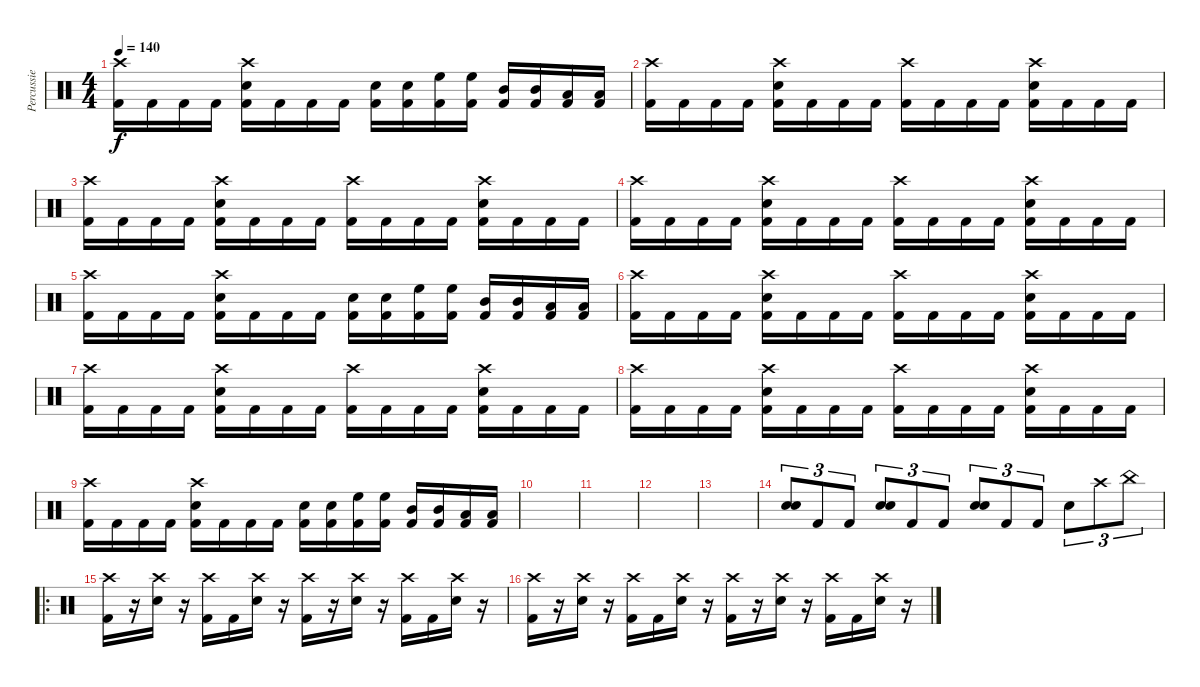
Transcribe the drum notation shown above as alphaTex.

\track ("Percussie" "Percussie") {instrument percussion}
\staff {score}
\articulation defaults
\ts (4 4)
\tempo 140
\clef neutral
\ks c
("Crash high (hit)" "Kick (hit) 2").16{dy f} "Kick (hit) 2".16 "Kick (hit) 2".16 "Kick (hit) 2".16 ("Crash high (hit)" "Snare (hit) 2" "Kick (hit) 2").16 "Kick (hit) 2".16 "Kick (hit) 2".16 "Kick (hit) 2".16 ("Snare (hit) 2" "Kick (hit) 2").16 ("Snare (hit) 2" "Kick (hit) 2").16 ("High Floor Tom (hit)" "Kick (hit) 2").16 ("High Floor Tom (hit)" "Kick (hit) 2").16 ("Mid Tom (hit)" "Kick (hit) 2").16 ("Mid Tom (hit)" "Kick (hit) 2").16 ("Low Tom (hit)" "Kick (hit) 2").16 ("Low Floor Tom (hit)" "Kick (hit) 2").16 |
("Crash high (hit)" "Kick (hit) 2").16 "Kick (hit) 2".16 "Kick (hit) 2".16 "Kick (hit) 2".16 ("Crash high (hit)" "Snare (hit) 2" "Kick (hit) 2").16 "Kick (hit) 2".16 "Kick (hit) 2".16 "Kick (hit) 2".16 ("Crash high (hit)" "Kick (hit) 2").16 "Kick (hit) 2".16 "Kick (hit) 2".16 "Kick (hit) 2".16 ("Crash high (hit)" "Snare (hit) 2" "Kick (hit) 2").16 "Kick (hit) 2".16 "Kick (hit) 2".16 "Kick (hit) 2".16 |
("Crash high (hit)" "Kick (hit) 2").16 "Kick (hit) 2".16 "Kick (hit) 2".16 "Kick (hit) 2".16 ("Crash high (hit)" "Snare (hit) 2" "Kick (hit) 2").16 "Kick (hit) 2".16 "Kick (hit) 2".16 "Kick (hit) 2".16 ("Crash high (hit)" "Kick (hit) 2").16 "Kick (hit) 2".16 "Kick (hit) 2".16 "Kick (hit) 2".16 ("Crash high (hit)" "Snare (hit) 2" "Kick (hit) 2").16 "Kick (hit) 2".16 "Kick (hit) 2".16 "Kick (hit) 2".16 |
("Crash high (hit)" "Kick (hit) 2").16 "Kick (hit) 2".16 "Kick (hit) 2".16 "Kick (hit) 2".16 ("Crash high (hit)" "Snare (hit) 2" "Kick (hit) 2").16 "Kick (hit) 2".16 "Kick (hit) 2".16 "Kick (hit) 2".16 ("Crash high (hit)" "Kick (hit) 2").16 "Kick (hit) 2".16 "Kick (hit) 2".16 "Kick (hit) 2".16 ("Crash high (hit)" "Snare (hit) 2" "Kick (hit) 2").16 "Kick (hit) 2".16 "Kick (hit) 2".16 "Kick (hit) 2".16 |
("Crash high (hit)" "Kick (hit) 2").16 "Kick (hit) 2".16 "Kick (hit) 2".16 "Kick (hit) 2".16 ("Crash high (hit)" "Snare (hit) 2" "Kick (hit) 2").16 "Kick (hit) 2".16 "Kick (hit) 2".16 "Kick (hit) 2".16 ("Snare (hit) 2" "Kick (hit) 2").16 ("Snare (hit) 2" "Kick (hit) 2").16 ("High Floor Tom (hit)" "Kick (hit) 2").16 ("High Floor Tom (hit)" "Kick (hit) 2").16 ("Mid Tom (hit)" "Kick (hit) 2").16 ("Mid Tom (hit)" "Kick (hit) 2").16 ("Low Tom (hit)" "Kick (hit) 2").16 ("Low Floor Tom (hit)" "Kick (hit) 2").16 |
("Crash high (hit)" "Kick (hit) 2").16 "Kick (hit) 2".16 "Kick (hit) 2".16 "Kick (hit) 2".16 ("Crash high (hit)" "Snare (hit) 2" "Kick (hit) 2").16 "Kick (hit) 2".16 "Kick (hit) 2".16 "Kick (hit) 2".16 ("Crash high (hit)" "Kick (hit) 2").16 "Kick (hit) 2".16 "Kick (hit) 2".16 "Kick (hit) 2".16 ("Crash high (hit)" "Snare (hit) 2" "Kick (hit) 2").16 "Kick (hit) 2".16 "Kick (hit) 2".16 "Kick (hit) 2".16 |
("Crash high (hit)" "Kick (hit) 2").16 "Kick (hit) 2".16 "Kick (hit) 2".16 "Kick (hit) 2".16 ("Crash high (hit)" "Snare (hit) 2" "Kick (hit) 2").16 "Kick (hit) 2".16 "Kick (hit) 2".16 "Kick (hit) 2".16 ("Crash high (hit)" "Kick (hit) 2").16 "Kick (hit) 2".16 "Kick (hit) 2".16 "Kick (hit) 2".16 ("Crash high (hit)" "Snare (hit) 2" "Kick (hit) 2").16 "Kick (hit) 2".16 "Kick (hit) 2".16 "Kick (hit) 2".16 |
("Crash high (hit)" "Kick (hit) 2").16 "Kick (hit) 2".16 "Kick (hit) 2".16 "Kick (hit) 2".16 ("Crash high (hit)" "Snare (hit) 2" "Kick (hit) 2").16 "Kick (hit) 2".16 "Kick (hit) 2".16 "Kick (hit) 2".16 ("Crash high (hit)" "Kick (hit) 2").16 "Kick (hit) 2".16 "Kick (hit) 2".16 "Kick (hit) 2".16 ("Crash high (hit)" "Snare (hit) 2" "Kick (hit) 2").16 "Kick (hit) 2".16 "Kick (hit) 2".16 "Kick (hit) 2".16 |
("Crash high (hit)" "Kick (hit) 2").16 "Kick (hit) 2".16 "Kick (hit) 2".16 "Kick (hit) 2".16 ("Crash high (hit)" "Snare (hit) 2" "Kick (hit) 2").16 "Kick (hit) 2".16 "Kick (hit) 2".16 "Kick (hit) 2".16 ("Snare (hit) 2" "Kick (hit) 2").16 ("Snare (hit) 2" "Kick (hit) 2").16 ("High Floor Tom (hit)" "Kick (hit) 2").16 ("High Floor Tom (hit)" "Kick (hit) 2").16 ("Mid Tom (hit)" "Kick (hit) 2").16 ("Mid Tom (hit)" "Kick (hit) 2").16 ("Low Tom (hit)" "Kick (hit) 2").16 ("Low Floor Tom (hit)" "Kick (hit) 2").16 |
|
|
|
|
("Snare (hit) 2" "Snare (hit) 2").8{tu (3 2) bd 480} "Kick (hit) 2".8{tu (3 2)} "Kick (hit) 2".8{tu (3 2)} ("Snare (hit) 2" "Snare (hit) 2").8{tu (3 2) bd 480} "Kick (hit) 2".8{tu (3 2)} "Kick (hit) 2".8{tu (3 2)} ("Snare (hit) 2" "Snare (hit) 2").8{tu (3 2) bd 480} "Kick (hit) 2".8{tu (3 2)} "Kick (hit) 2".8{tu (3 2)} "Snare (hit) 2".8{tu (3 2)} "Crash high (hit)".8{tu (3 2)} "China (hit)".8{tu (3 2)} |
\ro
("Crash high (hit)" "Kick (hit) 2").16 r.16 ("Crash high (hit)" "Snare (hit) 2").16 r.16 ("Crash high (hit)" "Kick (hit) 2").16 "Kick (hit) 2".16 ("Crash high (hit)" "Snare (hit) 2").16 r.16 ("Crash high (hit)" "Kick (hit) 2").16 r.16 ("Crash high (hit)" "Snare (hit) 2").16 r.16 ("Crash high (hit)" "Kick (hit) 2").16 "Kick (hit) 2".16 ("Crash high (hit)" "Snare (hit) 2").16 r.16 |
("Crash high (hit)" "Kick (hit) 2").16 r.16 ("Crash high (hit)" "Snare (hit) 2").16 r.16 ("Crash high (hit)" "Kick (hit) 2").16 "Kick (hit) 2".16 ("Crash high (hit)" "Snare (hit) 2").16 r.16 ("Crash high (hit)" "Kick (hit) 2").16 r.16 ("Crash high (hit)" "Snare (hit) 2").16 r.16 ("Crash high (hit)" "Kick (hit) 2").16 "Kick (hit) 2".16 ("Crash high (hit)" "Snare (hit) 2").16 r.16
